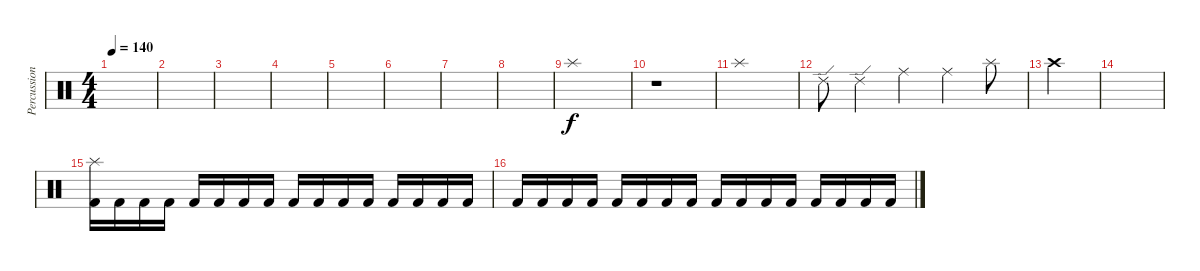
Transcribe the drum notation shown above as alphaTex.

\track ("Percussion" "Percussion") {instrument percussion}
\staff {score}
\articulation defaults
\ts (4 4)
\tempo 140
\clef neutral
\ks c
|
|
|
|
|
|
|
|
"Splash (hit)".1 |
r.1 |
"Splash (hit)".1 |
"Ride (edge) 2".8 "Ride (edge) 2".4 "Ride (middle)".4 "Ride (middle)".4 "Splash (hit)".8 |
"Crash high (hit)".4 |
|
("Splash (hit)" "Kick (hit) 2").16{volume 1} "Kick (hit) 2".16{volume 1} "Kick (hit) 2".16{volume 1} "Kick (hit) 2".16{volume 1} "Kick (hit) 2".16{volume 2} "Kick (hit) 2".16{volume 2} "Kick (hit) 2".16{volume 2} "Kick (hit) 2".16{volume 2} "Kick (hit) 2".16{volume 3} "Kick (hit) 2".16{volume 3} "Kick (hit) 2".16{volume 3} "Kick (hit) 2".16{volume 3} "Kick (hit) 2".16{volume 5} "Kick (hit) 2".16{volume 5} "Kick (hit) 2".16{volume 5} "Kick (hit) 2".16{volume 5} |
"Kick (hit) 2".16{volume 7} "Kick (hit) 2".16{volume 7} "Kick (hit) 2".16{volume 7} "Kick (hit) 2".16{volume 7} "Kick (hit) 2".16{volume 9} "Kick (hit) 2".16{volume 9} "Kick (hit) 2".16{volume 9} "Kick (hit) 2".16{volume 9} "Kick (hit) 2".16{volume 11} "Kick (hit) 2".16{volume 11} "Kick (hit) 2".16{volume 11} "Kick (hit) 2".16{volume 11} "Kick (hit) 2".16 "Kick (hit) 2".16 "Kick (hit) 2".16 "Kick (hit) 2".16
